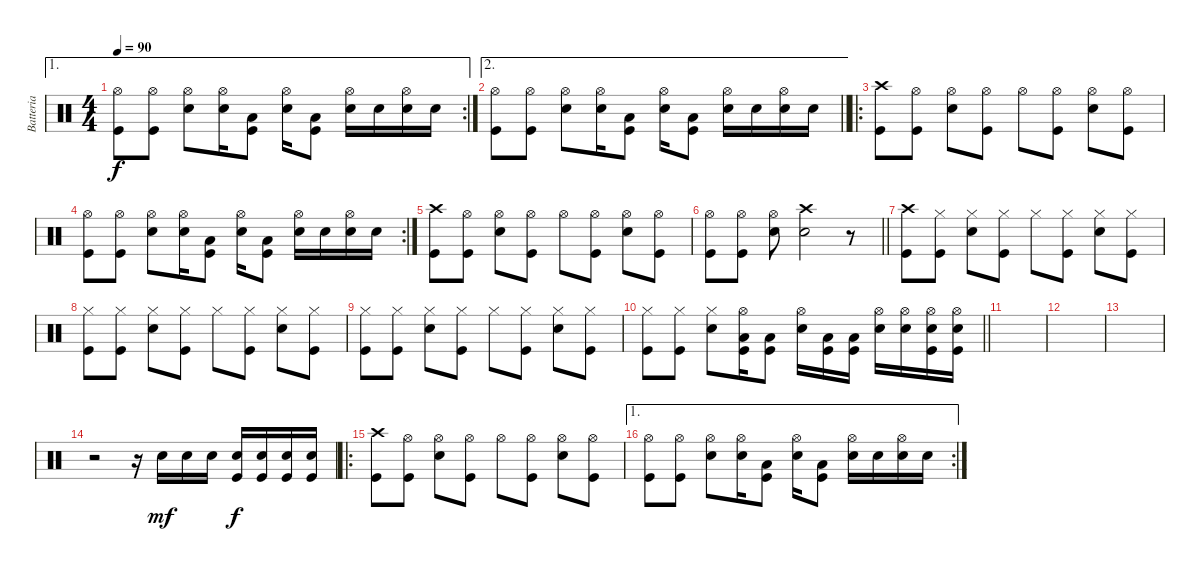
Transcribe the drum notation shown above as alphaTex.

\track ("Batteria" "Batteria") {instrument percussion}
\staff {score}
\articulation defaults
\ae 1
\rc 2
\ts (4 4)
\tempo 90
\clef neutral
\ks c
("Kick (hit)" "Hi-Hat (open)").8{dy f} ("Kick (hit)" "Hi-Hat (open)").8 ("Snare (hit) 2" "Hi-Hat (open)").8 ("Snare (hit) 2" "Hi-Hat (open)").16 ("Kick (hit)" "Low Floor Tom (hit)").8 ("Snare (hit) 2" "Hi-Hat (open)").16 ("Kick (hit)" "Low Floor Tom (hit)").8 ("Snare (hit) 2" "Hi-Hat (open)").16 "Snare (hit) 2".16 ("Snare (hit) 2" "Hi-Hat (open)").16 "Snare (hit) 2".16 |
\ae 2
\barLineRight lightlight
("Kick (hit)" "Hi-Hat (open)").8 ("Kick (hit)" "Hi-Hat (open)").8 ("Snare (hit) 2" "Hi-Hat (open)").8 ("Snare (hit) 2" "Hi-Hat (open)").16 ("Kick (hit)" "Low Floor Tom (hit)").8 ("Snare (hit) 2" "Hi-Hat (open)").16 ("Kick (hit)" "Low Floor Tom (hit)").8 ("Snare (hit) 2" "Hi-Hat (open)").16 "Snare (hit) 2".16 ("Snare (hit) 2" "Hi-Hat (open)").16 "Snare (hit) 2".16 |
\ro
("Kick (hit)" "Crash high (hit)").8 ("Kick (hit)" "Hi-Hat (open)").8 ("Snare (hit) 2" "Hi-Hat (open)").8 ("Kick (hit)" "Hi-Hat (open)").8 "Hi-Hat (open)".8 ("Kick (hit)" "Hi-Hat (open)").8 ("Snare (hit) 2" "Hi-Hat (open)").8 ("Kick (hit)" "Hi-Hat (open)").8 |
\rc 2
("Kick (hit)" "Hi-Hat (open)").8 ("Kick (hit)" "Hi-Hat (open)").8 ("Snare (hit) 2" "Hi-Hat (open)").8 ("Snare (hit) 2" "Hi-Hat (open)").16 ("Kick (hit)" "Low Floor Tom (hit)").8 ("Snare (hit) 2" "Hi-Hat (open)").16 ("Kick (hit)" "Low Floor Tom (hit)").8 ("Snare (hit) 2" "Hi-Hat (open)").16 "Snare (hit) 2".16 ("Snare (hit) 2" "Hi-Hat (open)").16 "Snare (hit) 2".16 |
("Kick (hit)" "Crash high (hit)").8 ("Kick (hit)" "Hi-Hat (open)").8 ("Snare (hit) 2" "Hi-Hat (open)").8 ("Kick (hit)" "Hi-Hat (open)").8 "Hi-Hat (open)".8 ("Kick (hit)" "Hi-Hat (open)").8 ("Snare (hit) 2" "Hi-Hat (open)").8 ("Kick (hit)" "Hi-Hat (open)").8 |
\barLineRight lightlight
("Kick (hit)" "Hi-Hat (open)").8 ("Kick (hit)" "Hi-Hat (open)").8 ("Snare (hit) 2" "Hi-Hat (open)").8 ("Snare (hit) 2" "Crash high (hit)").2 r.8 |
("Kick (hit)" "Crash high (hit)").8 ("Kick (hit)" "Hi-Hat (closed)").8 ("Snare (hit) 2" "Hi-Hat (closed)").8 ("Kick (hit)" "Hi-Hat (closed)").8 "Hi-Hat (closed)".8 ("Kick (hit)" "Hi-Hat (closed)").8 ("Snare (hit) 2" "Hi-Hat (closed)").8 ("Kick (hit)" "Hi-Hat (closed)").8 |
("Kick (hit)" "Hi-Hat (closed)").8 ("Kick (hit)" "Hi-Hat (closed)").8 ("Snare (hit) 2" "Hi-Hat (closed)").8 ("Kick (hit)" "Hi-Hat (closed)").8 "Hi-Hat (closed)".8 ("Kick (hit)" "Hi-Hat (closed)").8 ("Snare (hit) 2" "Hi-Hat (closed)").8 ("Kick (hit)" "Hi-Hat (closed)").8 |
("Kick (hit)" "Hi-Hat (closed)").8 ("Kick (hit)" "Hi-Hat (closed)").8 ("Snare (hit) 2" "Hi-Hat (closed)").8 ("Kick (hit)" "Hi-Hat (closed)").8 "Hi-Hat (closed)".8 ("Kick (hit)" "Hi-Hat (closed)").8 ("Snare (hit) 2" "Hi-Hat (closed)").8 ("Kick (hit)" "Hi-Hat (closed)").8 |
\barLineRight lightlight
("Kick (hit)" "Hi-Hat (closed)").8 ("Kick (hit)" "Hi-Hat (closed)").8 ("Snare (hit) 2" "Hi-Hat (closed)").8 ("Kick (hit)" "Hi-Hat (open)" "Low Floor Tom (hit)").16 ("Kick (hit)" "Low Floor Tom (hit)").8 ("Snare (hit) 2" "Hi-Hat (open)").16 ("Kick (hit)" "Low Floor Tom (hit)").16 ("Kick (hit)" "Low Floor Tom (hit)").16 ("Snare (hit) 2" "Hi-Hat (open)").16 ("Snare (hit) 2" "Hi-Hat (open)").16 ("Snare (hit) 2" "Hi-Hat (open)" "Kick (hit)").16 ("Snare (hit) 2" "Hi-Hat (open)" "Kick (hit)").16 |
|
|
|
r.2 r.16 "Snare (hit) 2".16{dy mf} "Snare (hit) 2".16 "Snare (hit) 2".16 ("Snare (hit) 2" "Kick (hit)").16{dy f} ("Snare (hit) 2" "Kick (hit)").16 ("Snare (hit) 2" "Kick (hit)").16 ("Snare (hit) 2" "Kick (hit)").16 |
\ro
("Kick (hit)" "Crash high (hit)").8 ("Kick (hit)" "Hi-Hat (open)").8 ("Snare (hit) 2" "Hi-Hat (open)").8 ("Kick (hit)" "Hi-Hat (open)").8 "Hi-Hat (open)".8 ("Kick (hit)" "Hi-Hat (open)").8 ("Snare (hit) 2" "Hi-Hat (open)").8 ("Kick (hit)" "Hi-Hat (open)").8 |
\ae 1
\rc 2
("Kick (hit)" "Hi-Hat (open)").8 ("Kick (hit)" "Hi-Hat (open)").8 ("Snare (hit) 2" "Hi-Hat (open)").8 ("Snare (hit) 2" "Hi-Hat (open)").16 ("Kick (hit)" "Low Floor Tom (hit)").8 ("Snare (hit) 2" "Hi-Hat (open)").16 ("Kick (hit)" "Low Floor Tom (hit)").8 ("Snare (hit) 2" "Hi-Hat (open)").16 "Snare (hit) 2".16 ("Snare (hit) 2" "Hi-Hat (open)").16 "Snare (hit) 2".16
